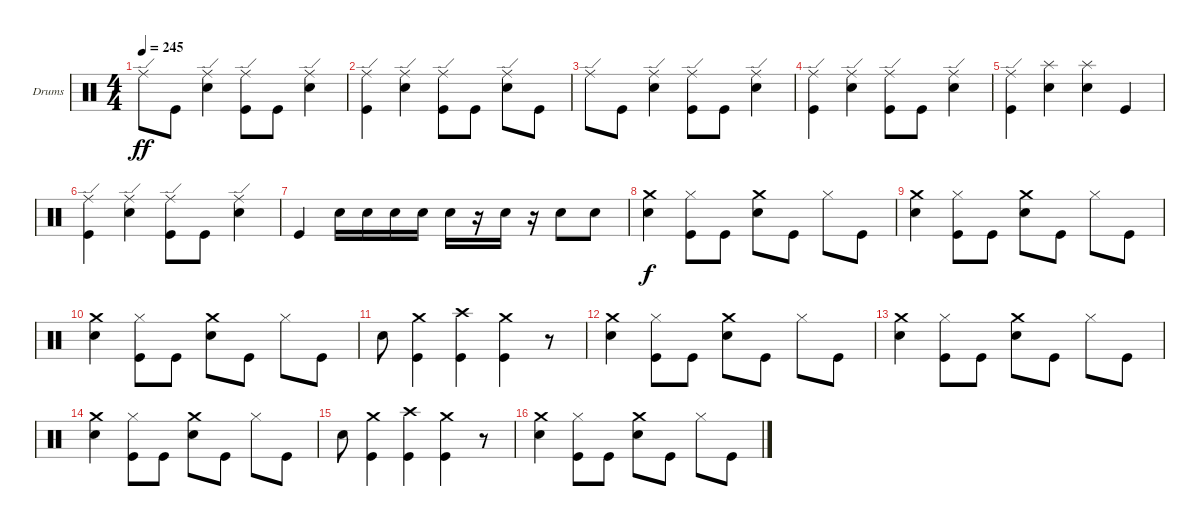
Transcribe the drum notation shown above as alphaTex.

\bracketExtendMode groupsimilarinstruments
\firstSystemTrackNameOrientation horizontal
\otherSystemsTrackNameOrientation horizontal
\track ("Drumkit" "Drums") {instrument percussion}
\staff {score}
\articulation defaults
\ts (4 4)
\tempo 245
\clef neutral
\ks c "Ride (edge)".8{dy ff} "Kick (hit)".8
("Snare (hit) 2" "Ride (edge)").4 ("Kick (hit)" "Ride (edge)").8 "Kick (hit)".8 ("Snare (hit) 2" "Ride (edge)").4 |
("Kick (hit)" "Ride (edge)").4 ("Snare (hit) 2" "Ride (edge)").4 ("Kick (hit)" "Ride (edge)").8 "Kick (hit)".8 ("Snare (hit) 2" "Ride (edge)").8 "Kick (hit)".8 |
"Ride (edge)".8 "Kick (hit)".8 ("Snare (hit) 2" "Ride (edge)").4 ("Kick (hit)" "Ride (edge)").8 "Kick (hit)".8 ("Snare (hit) 2" "Ride (edge)").4 |
("Kick (hit)" "Ride (edge)").4 ("Snare (hit) 2" "Ride (edge)").4 ("Kick (hit)" "Ride (edge)").8 "Kick (hit)".8 ("Snare (hit) 2" "Ride (edge)").4 |
("Kick (hit)" "Ride (edge)").4 ("Snare (hit) 2" "Splash (hit)").4 ("Snare (hit) 2" "Splash (hit)").4 "Kick (hit)".4 |
("Kick (hit)" "Ride (edge)").4 ("Snare (hit) 2" "Ride (edge)").4 ("Kick (hit)" "Ride (edge)").8 "Kick (hit)".8 ("Snare (hit) 2" "Ride (edge)").4 |
"Kick (hit)".4 "Snare (hit) 2".16 "Snare (hit) 2".16 "Snare (hit) 2".16 "Snare (hit) 2".16 "Snare (hit) 2".16 r.16 "Snare (hit) 2".16 r.16 "Snare (hit) 2".8 "Snare (hit) 2".8 |
("Snare (hit) 2" "Crash medium (hit)").4{dy f} ("Kick (hit)" "Hi-Hat (closed)").8 "Kick (hit)".8 ("Snare (hit) 2" "Crash medium (hit)").8 "Kick (hit)".8 "Hi-Hat (closed)".8 "Kick (hit)".8 |
("Snare (hit) 2" "Crash medium (hit)").4 ("Kick (hit)" "Hi-Hat (closed)").8 "Kick (hit)".8 ("Snare (hit) 2" "Crash medium (hit)").8 "Kick (hit)".8 "Hi-Hat (closed)".8 "Kick (hit)".8 |
("Snare (hit) 2" "Crash medium (hit)").4 ("Kick (hit)" "Hi-Hat (closed)").8 "Kick (hit)".8 ("Snare (hit) 2" "Crash medium (hit)").8 "Kick (hit)".8 "Hi-Hat (closed)".8 "Kick (hit)".8 |
"Snare (hit) 2".8 ("Kick (hit)" "Crash medium (hit)").4 ("Kick (hit)" "Crash high (hit)").4 ("Kick (hit)" "Crash medium (hit)").4 r.8 |
("Snare (hit) 2" "Crash medium (hit)").4 ("Kick (hit)" "Hi-Hat (closed)").8 "Kick (hit)".8 ("Snare (hit) 2" "Crash medium (hit)").8 "Kick (hit)".8 "Hi-Hat (closed)".8 "Kick (hit)".8 |
("Snare (hit) 2" "Crash medium (hit)").4 ("Kick (hit)" "Hi-Hat (closed)").8 "Kick (hit)".8 ("Snare (hit) 2" "Crash medium (hit)").8 "Kick (hit)".8 "Hi-Hat (closed)".8 "Kick (hit)".8 |
("Snare (hit) 2" "Crash medium (hit)").4 ("Kick (hit)" "Hi-Hat (closed)").8 "Kick (hit)".8 ("Snare (hit) 2" "Crash medium (hit)").8 "Kick (hit)".8 "Hi-Hat (closed)".8 "Kick (hit)".8 |
"Snare (hit) 2".8 ("Kick (hit)" "Crash medium (hit)").4 ("Kick (hit)" "Crash high (hit)").4 ("Kick (hit)" "Crash medium (hit)").4 r.8 |
("Snare (hit) 2" "Crash medium (hit)").4 ("Kick (hit)" "Hi-Hat (closed)").8 "Kick (hit)".8 ("Snare (hit) 2" "Crash medium (hit)").8 "Kick (hit)".8 "Hi-Hat (closed)".8 "Kick (hit)".8
